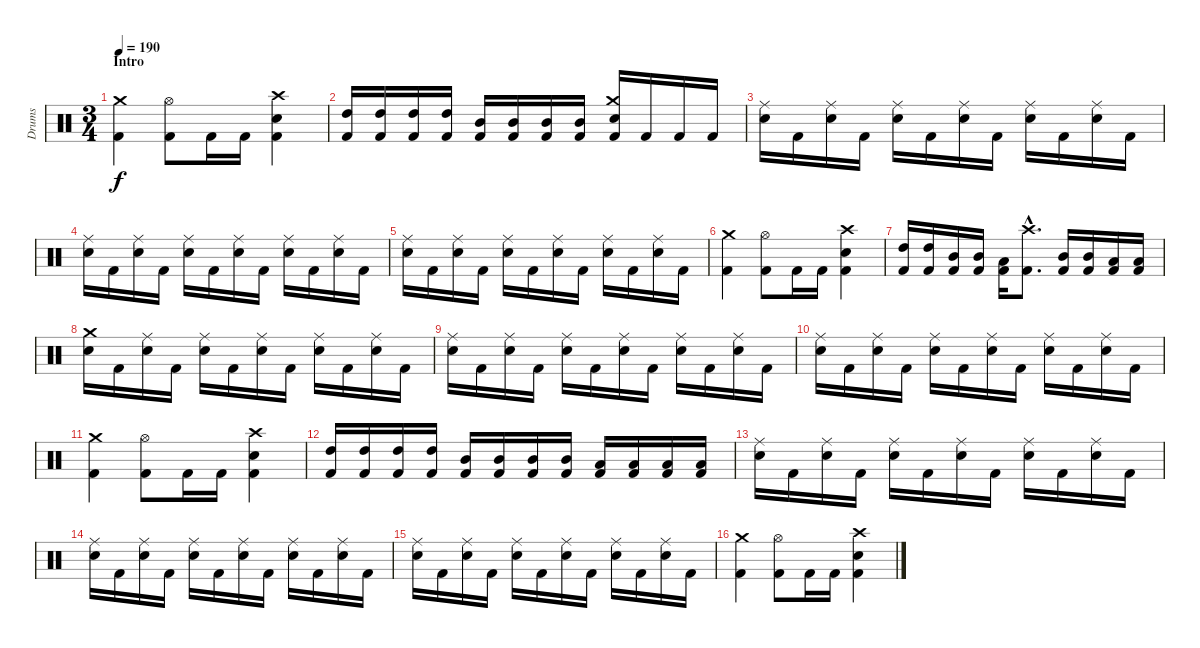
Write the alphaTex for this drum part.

\track ("Drums" "Drums") {instrument percussion}
\staff {score}
\articulation defaults
\ts (3 4)
\section ("" "Intro")
\tempo 190
\tempo 210
\tempo 190
\clef neutral
\ks c
("Kick (hit) 2" "Crash medium (hit)").4{dy f} ("Kick (hit) 2" "Hi-Hat (open)").8 "Kick (hit) 2".16 "Kick (hit) 2".16 ("Kick (hit) 2" "Snare (hit) 2" "Crash high (hit)").4 |
("Kick (hit) 2" "High Tom (hit)").16 ("Kick (hit) 2" "High Tom (hit)").16 ("Kick (hit) 2" "High Tom (hit)").16 ("Kick (hit) 2" "High Tom (hit)").16 ("Kick (hit) 2" "Mid Tom (hit)").16 ("Kick (hit) 2" "Mid Tom (hit)").16 ("Kick (hit) 2" "Mid Tom (hit)").16 ("Kick (hit) 2" "Mid Tom (hit)").16 ("Kick (hit) 2" "Snare (hit) 2" "Crash medium (hit)").16 "Kick (hit) 2".16 "Kick (hit) 2".16 "Kick (hit) 2".16 |
("Snare (hit) 2" "Ride (middle)").16 "Kick (hit) 2".16 ("Snare (hit) 2" "Ride (middle)").16 "Kick (hit) 2".16 ("Snare (hit) 2" "Ride (middle)").16 "Kick (hit) 2".16 ("Snare (hit) 2" "Ride (middle)").16 "Kick (hit) 2".16 ("Snare (hit) 2" "Ride (middle)").16 "Kick (hit) 2".16 ("Snare (hit) 2" "Ride (middle)").16 "Kick (hit) 2".16 |
("Snare (hit) 2" "Ride (middle)").16 "Kick (hit) 2".16 ("Snare (hit) 2" "Ride (middle)").16 "Kick (hit) 2".16 ("Snare (hit) 2" "Ride (middle)").16 "Kick (hit) 2".16 ("Snare (hit) 2" "Ride (middle)").16 "Kick (hit) 2".16 ("Snare (hit) 2" "Ride (middle)").16 "Kick (hit) 2".16 ("Snare (hit) 2" "Ride (middle)").16 "Kick (hit) 2".16 |
("Snare (hit) 2" "Ride (middle)").16 "Kick (hit) 2".16 ("Snare (hit) 2" "Ride (middle)").16 "Kick (hit) 2".16 ("Snare (hit) 2" "Ride (middle)").16 "Kick (hit) 2".16 ("Snare (hit) 2" "Ride (middle)").16 "Kick (hit) 2".16 ("Snare (hit) 2" "Ride (middle)").16 "Kick (hit) 2".16 ("Snare (hit) 2" "Ride (middle)").16 "Kick (hit) 2".16 |
("Kick (hit) 2" "Crash medium (hit)").4 ("Kick (hit) 2" "Hi-Hat (open)").8 "Kick (hit) 2".16 "Kick (hit) 2".16 ("Kick (hit) 2" "Snare (hit) 2" "Crash high (hit)").4 |
("Kick (hit) 2" "High Tom (hit)").16 ("Kick (hit) 2" "High Tom (hit)").16 ("Kick (hit) 2" "Mid Tom (hit)").16 ("Kick (hit) 2" "Mid Tom (hit)").16 ("Kick (hit) 2" "Low Tom (hit)").16 ("Kick (hit) 2"{hac} "Crash high (hit)"{hac}).8{d} ("Kick (hit) 2" "Mid Tom (hit)").16 ("Kick (hit) 2" "Mid Tom (hit)").16 ("Kick (hit) 2" "Low Tom (hit)").16 ("Kick (hit) 2" "Low Tom (hit)").16 |
("Snare (hit) 2" "Crash medium (hit)").16 "Kick (hit) 2".16 ("Snare (hit) 2" "Ride (middle)").16 "Kick (hit) 2".16 ("Snare (hit) 2" "Ride (middle)").16 "Kick (hit) 2".16 ("Snare (hit) 2" "Ride (middle)").16 "Kick (hit) 2".16 ("Snare (hit) 2" "Ride (middle)").16 "Kick (hit) 2".16 ("Snare (hit) 2" "Ride (middle)").16 "Kick (hit) 2".16 |
("Snare (hit) 2" "Ride (middle)").16 "Kick (hit) 2".16 ("Snare (hit) 2" "Ride (middle)").16 "Kick (hit) 2".16 ("Snare (hit) 2" "Ride (middle)").16 "Kick (hit) 2".16 ("Snare (hit) 2" "Ride (middle)").16 "Kick (hit) 2".16 ("Snare (hit) 2" "Ride (middle)").16 "Kick (hit) 2".16 ("Snare (hit) 2" "Ride (middle)").16 "Kick (hit) 2".16 |
("Snare (hit) 2" "Ride (middle)").16 "Kick (hit) 2".16 ("Snare (hit) 2" "Ride (middle)").16 "Kick (hit) 2".16 ("Snare (hit) 2" "Ride (middle)").16 "Kick (hit) 2".16 ("Snare (hit) 2" "Ride (middle)").16 "Kick (hit) 2".16 ("Snare (hit) 2" "Ride (middle)").16 "Kick (hit) 2".16 ("Snare (hit) 2" "Ride (middle)").16 "Kick (hit) 2".16 |
("Kick (hit) 2" "Crash medium (hit)").4 ("Kick (hit) 2" "Hi-Hat (open)").8 "Kick (hit) 2".16 "Kick (hit) 2".16 ("Kick (hit) 2" "Snare (hit) 2" "Crash high (hit)").4 |
("Kick (hit) 2" "High Tom (hit)").16 ("Kick (hit) 2" "High Tom (hit)").16 ("Kick (hit) 2" "High Tom (hit)").16 ("Kick (hit) 2" "High Tom (hit)").16 ("Kick (hit) 2" "Mid Tom (hit)").16 ("Kick (hit) 2" "Mid Tom (hit)").16 ("Kick (hit) 2" "Mid Tom (hit)").16 ("Kick (hit) 2" "Mid Tom (hit)").16 ("Kick (hit) 2" "Low Tom (hit)").16 ("Kick (hit) 2" "Low Tom (hit)").16 ("Kick (hit) 2" "Low Tom (hit)").16 ("Kick (hit) 2" "Low Tom (hit)").16 |
("Snare (hit) 2" "Ride (middle)").16 "Kick (hit) 2".16 ("Snare (hit) 2" "Ride (middle)").16 "Kick (hit) 2".16 ("Snare (hit) 2" "Ride (middle)").16 "Kick (hit) 2".16 ("Snare (hit) 2" "Ride (middle)").16 "Kick (hit) 2".16 ("Snare (hit) 2" "Ride (middle)").16 "Kick (hit) 2".16 ("Snare (hit) 2" "Ride (middle)").16 "Kick (hit) 2".16 |
("Snare (hit) 2" "Ride (middle)").16 "Kick (hit) 2".16 ("Snare (hit) 2" "Ride (middle)").16 "Kick (hit) 2".16 ("Snare (hit) 2" "Ride (middle)").16 "Kick (hit) 2".16 ("Snare (hit) 2" "Ride (middle)").16 "Kick (hit) 2".16 ("Snare (hit) 2" "Ride (middle)").16 "Kick (hit) 2".16 ("Snare (hit) 2" "Ride (middle)").16 "Kick (hit) 2".16 |
("Snare (hit) 2" "Ride (middle)").16 "Kick (hit) 2".16 ("Snare (hit) 2" "Ride (middle)").16 "Kick (hit) 2".16 ("Snare (hit) 2" "Ride (middle)").16 "Kick (hit) 2".16 ("Snare (hit) 2" "Ride (middle)").16 "Kick (hit) 2".16 ("Snare (hit) 2" "Ride (middle)").16 "Kick (hit) 2".16 ("Snare (hit) 2" "Ride (middle)").16 "Kick (hit) 2".16 |
("Kick (hit) 2" "Crash medium (hit)").4 ("Kick (hit) 2" "Hi-Hat (open)").8 "Kick (hit) 2".16 "Kick (hit) 2".16 ("Kick (hit) 2" "Snare (hit) 2" "Crash high (hit)").4
